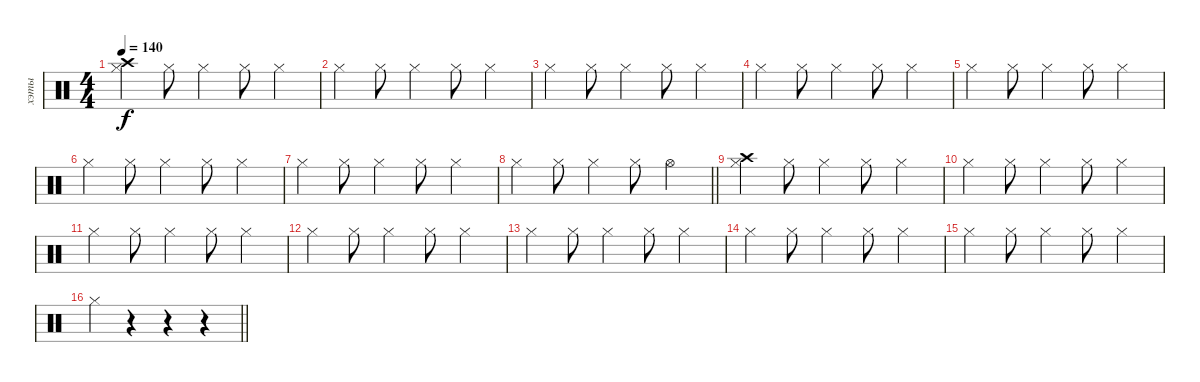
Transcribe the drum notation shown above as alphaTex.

\track ("хэты" "хэты") {instrument percussion}
\staff {score}
\articulation defaults
\ts (4 4)
\tempo 140
\clef neutral
\ks c
("Hi-Hat (closed)" "Crash high (hit)").4{dy f} "Hi-Hat (closed)".8 "Hi-Hat (closed)".4 "Hi-Hat (closed)".8 "Hi-Hat (closed)".4 |
"Hi-Hat (closed)".4 "Hi-Hat (closed)".8 "Hi-Hat (closed)".4 "Hi-Hat (closed)".8 "Hi-Hat (closed)".4 |
"Hi-Hat (closed)".4 "Hi-Hat (closed)".8 "Hi-Hat (closed)".4 "Hi-Hat (closed)".8 "Hi-Hat (closed)".4 |
"Hi-Hat (closed)".4 "Hi-Hat (closed)".8 "Hi-Hat (closed)".4 "Hi-Hat (closed)".8 "Hi-Hat (closed)".4 |
"Hi-Hat (closed)".4 "Hi-Hat (closed)".8 "Hi-Hat (closed)".4 "Hi-Hat (closed)".8 "Hi-Hat (closed)".4 |
"Hi-Hat (closed)".4 "Hi-Hat (closed)".8 "Hi-Hat (closed)".4 "Hi-Hat (closed)".8 "Hi-Hat (closed)".4 |
"Hi-Hat (closed)".4 "Hi-Hat (closed)".8 "Hi-Hat (closed)".4 "Hi-Hat (closed)".8 "Hi-Hat (closed)".4 |
\barLineRight lightlight "Hi-Hat (closed)".4 "Hi-Hat (closed)".8 "Hi-Hat (closed)".4 "Hi-Hat (closed)".8 "Hi-Hat (open)".4
|
("Hi-Hat (closed)" "Crash high (hit)").4 "Hi-Hat (closed)".8 "Hi-Hat (closed)".4 "Hi-Hat (closed)".8 "Hi-Hat (closed)".4 |
"Hi-Hat (closed)".4 "Hi-Hat (closed)".8 "Hi-Hat (closed)".4 "Hi-Hat (closed)".8 "Hi-Hat (closed)".4 |
"Hi-Hat (closed)".4 "Hi-Hat (closed)".8 "Hi-Hat (closed)".4 "Hi-Hat (closed)".8 "Hi-Hat (closed)".4 |
"Hi-Hat (closed)".4 "Hi-Hat (closed)".8 "Hi-Hat (closed)".4 "Hi-Hat (closed)".8 "Hi-Hat (closed)".4 |
"Hi-Hat (closed)".4 "Hi-Hat (closed)".8 "Hi-Hat (closed)".4 "Hi-Hat (closed)".8 "Hi-Hat (closed)".4 |
"Hi-Hat (closed)".4 "Hi-Hat (closed)".8 "Hi-Hat (closed)".4 "Hi-Hat (closed)".8 "Hi-Hat (closed)".4 |
"Hi-Hat (closed)".4 "Hi-Hat (closed)".8 "Hi-Hat (closed)".4 "Hi-Hat (closed)".8 "Hi-Hat (closed)".4 |
\barLineRight lightlight "Hi-Hat (closed)".4
r.4 r.4 r.4
